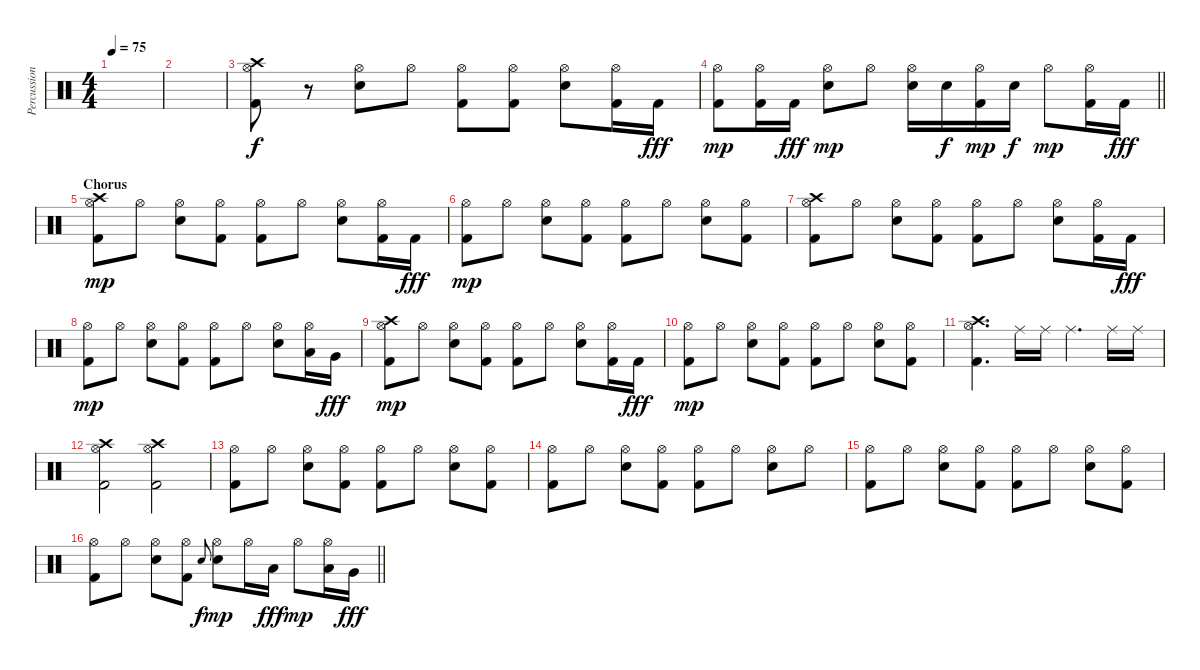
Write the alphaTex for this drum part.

\track ("Percussion" "Percussion") {instrument percussion}
\staff {score}
\articulation defaults
\ts (4 4)
\tempo 75
\clef neutral
\ks c
|
|
("Kick (hit) 2" "Hi-Hat (open)" "Crash high (hit)").8 r.8 ("Electric Snare (hit)" "Hi-Hat (open)").8 "Hi-Hat (open)".8 ("Kick (hit) 2" "Hi-Hat (open)").8 ("Kick (hit) 2" "Hi-Hat (open)").8 ("Electric Snare (hit)" "Hi-Hat (open)").8 ("Kick (hit) 2" "Hi-Hat (open)").16 "Kick (hit) 2".16{dy fff} |
\barLineRight lightlight
("Kick (hit) 2" "Hi-Hat (open)").8{dy mp} ("Kick (hit) 2" "Hi-Hat (open)").16 "Kick (hit) 2".16{dy fff} ("Electric Snare (hit)" "Hi-Hat (open)").8{dy mp} "Hi-Hat (open)".8 ("Electric Snare (hit)" "Hi-Hat (open)").16 "Electric Snare (hit)".16{dy f} ("Kick (hit) 2" "Hi-Hat (open)").16{dy mp} "Electric Snare (hit)".16{dy f} "Hi-Hat (open)".8{dy mp} ("Kick (hit) 2" "Hi-Hat (open)").16 "Kick (hit) 2".16{dy fff} |
\section ("" "Chorus")
("Kick (hit) 2" "Hi-Hat (open)" "Crash high (hit)").8{dy mp} "Hi-Hat (open)".8 ("Electric Snare (hit)" "Hi-Hat (open)").8 ("Kick (hit) 2" "Hi-Hat (open)").8 ("Kick (hit) 2" "Hi-Hat (open)").8 "Hi-Hat (open)".8 ("Electric Snare (hit)" "Hi-Hat (open)").8 ("Kick (hit) 2" "Hi-Hat (open)").16 "Kick (hit) 2".16{dy fff} |
("Kick (hit) 2" "Hi-Hat (open)").8{dy mp} "Hi-Hat (open)".8 ("Electric Snare (hit)" "Hi-Hat (open)").8 ("Kick (hit) 2" "Hi-Hat (open)").8 ("Kick (hit) 2" "Hi-Hat (open)").8 "Hi-Hat (open)".8 ("Electric Snare (hit)" "Hi-Hat (open)").8 ("Kick (hit) 2" "Hi-Hat (open)").8 |
("Kick (hit) 2" "Hi-Hat (open)" "Crash high (hit)").8 "Hi-Hat (open)".8 ("Electric Snare (hit)" "Hi-Hat (open)").8 ("Kick (hit) 2" "Hi-Hat (open)").8 ("Kick (hit) 2" "Hi-Hat (open)").8 "Hi-Hat (open)".8 ("Electric Snare (hit)" "Hi-Hat (open)").8 ("Kick (hit) 2" "Hi-Hat (open)").16 "Kick (hit) 2".16{dy fff} |
("Kick (hit) 2" "Hi-Hat (open)").8{dy mp} "Hi-Hat (open)".8 ("Electric Snare (hit)" "Hi-Hat (open)").8 ("Kick (hit) 2" "Hi-Hat (open)").8 ("Kick (hit) 2" "Hi-Hat (open)").8 "Hi-Hat (open)".8 ("Electric Snare (hit)" "Hi-Hat (open)").8 ("Low Tom (hit)" "Hi-Hat (open)").16 "Very Low Tom (hit)".16{dy fff} |
("Kick (hit) 2" "Hi-Hat (open)" "Crash high (hit)").8{dy mp} "Hi-Hat (open)".8 ("Electric Snare (hit)" "Hi-Hat (open)").8 ("Kick (hit) 2" "Hi-Hat (open)").8 ("Kick (hit) 2" "Hi-Hat (open)").8 "Hi-Hat (open)".8 ("Electric Snare (hit)" "Hi-Hat (open)").8 ("Kick (hit) 2" "Hi-Hat (open)").16 "Kick (hit) 2".16{dy fff} |
("Kick (hit) 2" "Hi-Hat (open)").8{dy mp} "Hi-Hat (open)".8 ("Electric Snare (hit)" "Hi-Hat (open)").8 ("Kick (hit) 2" "Hi-Hat (open)").8 ("Kick (hit) 2" "Hi-Hat (open)").8 "Hi-Hat (open)".8 ("Electric Snare (hit)" "Hi-Hat (open)").8 ("Kick (hit) 2" "Hi-Hat (open)").8 |
("Kick (hit) 2" "Hi-Hat (open)" "Crash high (hit)").4{d} "Ride (middle)".16 "Ride (middle)".16 "Ride (middle)".4{d} "Ride (middle)".16 "Ride (middle)".16 |
("Kick (hit) 2" "Hi-Hat (open)" "Crash high (hit)").2 ("Kick (hit) 2" "Hi-Hat (open)" "Crash high (hit)").2 |
("Kick (hit) 2" "Hi-Hat (open)").8 "Hi-Hat (open)".8 ("Electric Snare (hit)" "Hi-Hat (open)").8 ("Kick (hit) 2" "Hi-Hat (open)").8 ("Kick (hit) 2" "Hi-Hat (open)").8 "Hi-Hat (open)".8 ("Electric Snare (hit)" "Hi-Hat (open)").8 ("Kick (hit) 2" "Hi-Hat (open)").8 |
("Kick (hit) 2" "Hi-Hat (open)").8 "Hi-Hat (open)".8 ("Electric Snare (hit)" "Hi-Hat (open)").8 ("Kick (hit) 2" "Hi-Hat (open)").8 ("Kick (hit) 2" "Hi-Hat (open)").8 "Hi-Hat (open)".8 ("Electric Snare (hit)" "Hi-Hat (open)").8 "Hi-Hat (open)".8 |
("Kick (hit) 2" "Hi-Hat (open)").8 "Hi-Hat (open)".8 ("Electric Snare (hit)" "Hi-Hat (open)").8 ("Kick (hit) 2" "Hi-Hat (open)").8 ("Kick (hit) 2" "Hi-Hat (open)").8 "Hi-Hat (open)".8 ("Electric Snare (hit)" "Hi-Hat (open)").8 ("Kick (hit) 2" "Hi-Hat (open)").8 |
\barLineRight lightlight
("Kick (hit) 2" "Hi-Hat (open)").8 "Hi-Hat (open)".8 ("Electric Snare (hit)" "Hi-Hat (open)").8 ("Kick (hit) 2" "Hi-Hat (open)").8 "Electric Snare (hit)".8{gr onbeat dy f} ("Electric Snare (hit)" "Hi-Hat (open)").8{dy mp} "Hi-Hat (open)".16 "Low Tom (hit)".16{dy fff} "Hi-Hat (open)".8{dy mp} ("Low Tom (hit)" "Hi-Hat (open)").16 "Very Low Tom (hit)".16{dy fff}
